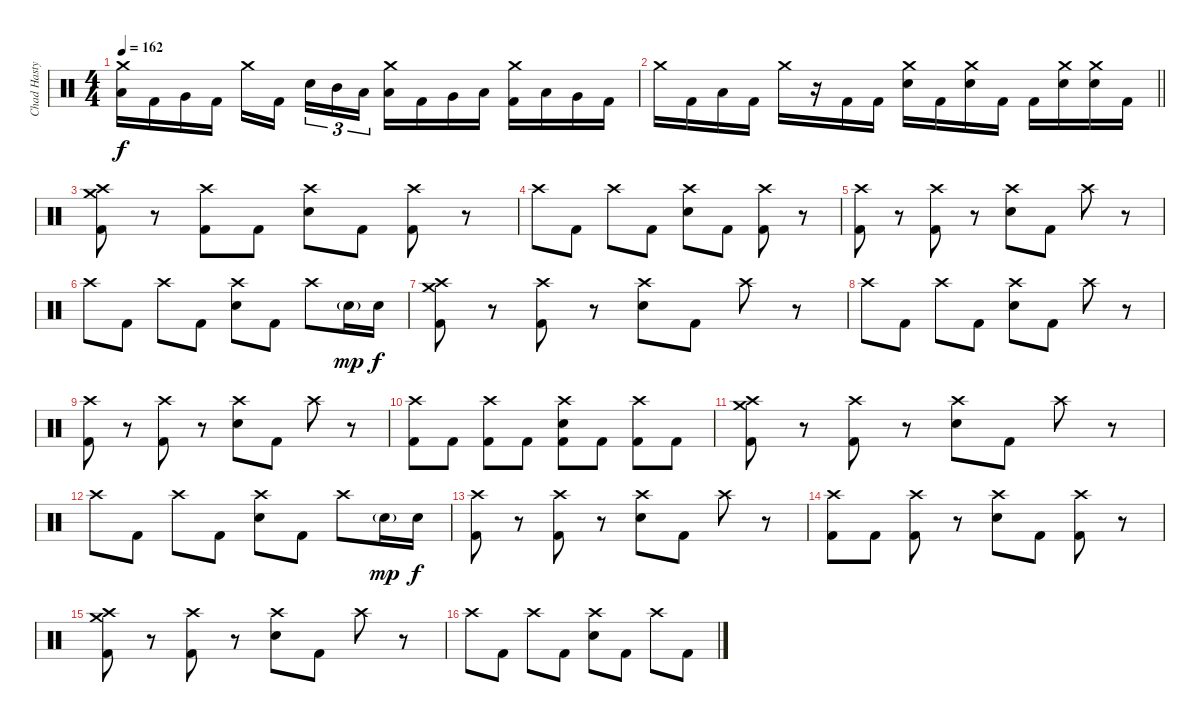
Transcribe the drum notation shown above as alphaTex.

\track ("Chad Hasty" "Chad Hasty") {instrument percussion}
\staff {score}
\articulation defaults
\ts (4 4)
\tempo 162
\clef neutral
\ks c
("Crash medium (hit)" "Low Tom (hit)").16{dy f} "Kick (hit) 2".16 "Very Low Tom (hit)".16 "Kick (hit) 2".16 "Crash medium (hit)".16 "Kick (hit) 2".16{beam splitsecondary} "Snare (hit) 2".16{tu (3 2)} "Mid Tom (hit)".16{tu (3 2)} "Low Tom (hit)".16{tu (3 2)} ("Crash medium (hit)" "Low Tom (hit)").16 "Kick (hit) 2".16 "Very Low Tom (hit)".16 "Low Tom (hit)".16 ("Crash medium (hit)" "Kick (hit) 2").16 "Low Tom (hit)".16 "Very Low Tom (hit)".16 "Kick (hit) 2".16 |
\barLineRight lightlight "Crash medium (hit)".16 "Kick (hit) 2".16 "Low Tom (hit)".16 "Kick (hit) 2".16 "Crash medium (hit)".16
r.16 "Kick (hit) 2".16 "Kick (hit) 2".16 ("Crash medium (hit)" "Snare (hit) 2").16 "Kick (hit) 2".16 ("Crash medium (hit)" "Snare (hit) 2").16 "Kick (hit) 2".16 "Kick (hit) 2".16 ("Crash medium (hit)" "Snare (hit) 2").16 ("Crash medium (hit)" "Snare (hit) 2").16 "Kick (hit) 2".16 |
("Crash medium (hit)" "Crash high (hit)" "Kick (hit) 2").8 r.8 ("Crash high (hit)" "Kick (hit) 2").8 "Kick (hit) 2".8 ("Crash high (hit)" "Snare (hit) 2").8 "Kick (hit) 2".8 ("Crash high (hit)" "Kick (hit) 2").8 r.8 |
"Crash high (hit)".8 "Kick (hit) 2".8 "Crash high (hit)".8 "Kick (hit) 2".8 ("Crash high (hit)" "Snare (hit) 2").8 "Kick (hit) 2".8 ("Crash high (hit)" "Kick (hit) 2").8 r.8 |
("Crash high (hit)" "Kick (hit) 2").8 r.8 ("Crash high (hit)" "Kick (hit) 2").8 r.8 ("Crash high (hit)" "Snare (hit) 2").8 "Kick (hit) 2".8 "Crash high (hit)".8 r.8 |
"Crash high (hit)".8 "Kick (hit) 2".8 "Crash high (hit)".8 "Kick (hit) 2".8 ("Crash high (hit)" "Snare (hit) 2").8 "Kick (hit) 2".8 "Crash high (hit)".8 "Snare (hit) 2"{g}.16{dy mp} "Snare (hit) 2".16{dy f} |
("Crash medium (hit)" "Crash high (hit)" "Kick (hit) 2").8 r.8 ("Crash high (hit)" "Kick (hit) 2").8 r.8 ("Crash high (hit)" "Snare (hit) 2").8 "Kick (hit) 2".8 "Crash high (hit)".8 r.8 |
"Crash high (hit)".8 "Kick (hit) 2".8 "Crash high (hit)".8 "Kick (hit) 2".8 ("Crash high (hit)" "Snare (hit) 2").8 "Kick (hit) 2".8 "Crash high (hit)".8 r.8 |
("Crash high (hit)" "Kick (hit) 2").8 r.8 ("Crash high (hit)" "Kick (hit) 2").8 r.8 ("Crash high (hit)" "Snare (hit) 2").8 "Kick (hit) 2".8 "Crash high (hit)".8 r.8 |
("Crash high (hit)" "Kick (hit) 2").8 "Kick (hit) 2".8 ("Crash high (hit)" "Kick (hit) 2").8 "Kick (hit) 2".8 ("Crash high (hit)" "Snare (hit) 2" "Kick (hit) 2").8 "Kick (hit) 2".8 ("Crash high (hit)" "Kick (hit) 2").8 "Kick (hit) 2".8 |
("Crash medium (hit)" "Crash high (hit)" "Kick (hit) 2").8 r.8 ("Crash high (hit)" "Kick (hit) 2").8 r.8 ("Crash high (hit)" "Snare (hit) 2").8 "Kick (hit) 2".8 "Crash high (hit)".8 r.8 |
"Crash high (hit)".8 "Kick (hit) 2".8 "Crash high (hit)".8 "Kick (hit) 2".8 ("Crash high (hit)" "Snare (hit) 2").8 "Kick (hit) 2".8 "Crash high (hit)".8 "Snare (hit) 2"{g}.16{dy mp} "Snare (hit) 2".16{dy f} |
("Crash high (hit)" "Kick (hit) 2").8 r.8 ("Crash high (hit)" "Kick (hit) 2").8 r.8 ("Crash high (hit)" "Snare (hit) 2").8 "Kick (hit) 2".8 "Crash high (hit)".8 r.8 |
("Crash high (hit)" "Kick (hit) 2").8 "Kick (hit) 2".8 ("Crash high (hit)" "Kick (hit) 2").8 r.8 ("Crash high (hit)" "Snare (hit) 2").8 "Kick (hit) 2".8 ("Crash high (hit)" "Kick (hit) 2").8 r.8 |
("Crash medium (hit)" "Crash high (hit)" "Kick (hit) 2").8 r.8 ("Crash high (hit)" "Kick (hit) 2").8 r.8 ("Crash high (hit)" "Snare (hit) 2").8 "Kick (hit) 2".8 "Crash high (hit)".8 r.8 |
"Crash high (hit)".8 "Kick (hit) 2".8 "Crash high (hit)".8 "Kick (hit) 2".8 ("Crash high (hit)" "Snare (hit) 2").8 "Kick (hit) 2".8 "Crash high (hit)".8 "Kick (hit) 2".8
